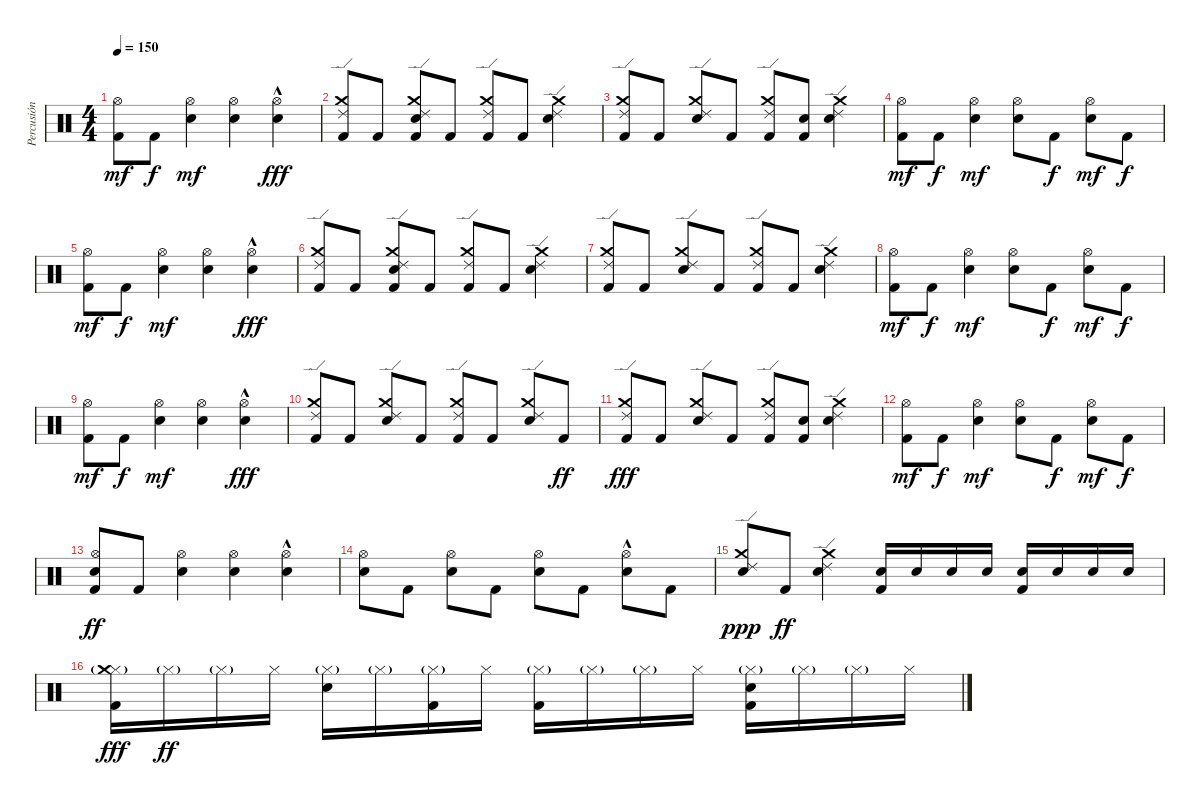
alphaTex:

\track ("Percusión" "Percusión") {instrument percussion}
\staff {score}
\articulation defaults
\ts (4 4)
\tempo 150
\clef neutral
\ks c
("Kick (hit) 2" "Hi-Hat (open)").8{dy mf} "Kick (hit) 2".8{dy f} ("Hi-Hat (open)" "Electric Snare (hit)").4{dy mf} ("Hi-Hat (open)" "Electric Snare (hit)").4 ("Hi-Hat (open)"{hac} "Electric Snare (hit)"{hac}).4{dy fff} |
("Kick (hit) 2" "Crash medium (hit)" "Ride (edge) 2").8 "Kick (hit) 2".8 ("Kick (hit) 2" "Crash medium (hit)" "Electric Snare (hit)" "Ride (edge) 2").8 "Kick (hit) 2".8 ("Kick (hit) 2" "Crash medium (hit)" "Ride (edge) 2").8 "Kick (hit) 2".8 ("Ride (edge) 2" "Crash medium (hit)" "Electric Snare (hit)").4 |
("Kick (hit) 2" "Crash medium (hit)" "Ride (edge) 2").8 "Kick (hit) 2".8 ("Crash medium (hit)" "Electric Snare (hit)" "Ride (edge) 2").8 "Kick (hit) 2".8 ("Kick (hit) 2" "Crash medium (hit)" "Ride (edge) 2").8 ("Kick (hit) 2" "Electric Snare (hit)").8 ("Crash medium (hit)" "Electric Snare (hit)" "Ride (edge) 2").4 |
("Hi-Hat (open)" "Kick (hit) 2").8{dy mf} "Kick (hit) 2".8{dy f} ("Electric Snare (hit)" "Hi-Hat (open)").4{dy mf} ("Hi-Hat (open)" "Electric Snare (hit)").8 "Kick (hit) 2".8{dy f} ("Hi-Hat (open)" "Electric Snare (hit)").8{dy mf} "Kick (hit) 2".8{dy f} |
("Kick (hit) 2" "Hi-Hat (open)").8{dy mf} "Kick (hit) 2".8{dy f} ("Hi-Hat (open)" "Electric Snare (hit)").4{dy mf} ("Hi-Hat (open)" "Electric Snare (hit)").4 ("Hi-Hat (open)"{hac} "Electric Snare (hit)"{hac}).4{dy fff} |
("Kick (hit) 2" "Crash medium (hit)" "Ride (edge) 2").8 "Kick (hit) 2".8 ("Kick (hit) 2" "Crash medium (hit)" "Electric Snare (hit)" "Ride (edge) 2").8 "Kick (hit) 2".8 ("Kick (hit) 2" "Crash medium (hit)" "Ride (edge) 2").8 "Kick (hit) 2".8 ("Ride (edge) 2" "Crash medium (hit)" "Electric Snare (hit)").4 |
("Kick (hit) 2" "Crash medium (hit)" "Ride (edge) 2").8 "Kick (hit) 2".8 ("Crash medium (hit)" "Electric Snare (hit)" "Ride (edge) 2").8 "Kick (hit) 2".8 ("Kick (hit) 2" "Crash medium (hit)" "Ride (edge) 2").8 "Kick (hit) 2".8 ("Crash medium (hit)" "Electric Snare (hit)" "Ride (edge) 2").4 |
("Hi-Hat (open)" "Kick (hit) 2").8{dy mf} "Kick (hit) 2".8{dy f} ("Electric Snare (hit)" "Hi-Hat (open)").4{dy mf} ("Hi-Hat (open)" "Electric Snare (hit)").8 "Kick (hit) 2".8{dy f} ("Hi-Hat (open)" "Electric Snare (hit)").8{dy mf} "Kick (hit) 2".8{dy f} |
("Kick (hit) 2" "Hi-Hat (open)").8{dy mf} "Kick (hit) 2".8{dy f} ("Hi-Hat (open)" "Electric Snare (hit)").4{dy mf} ("Hi-Hat (open)" "Electric Snare (hit)").4 ("Hi-Hat (open)"{hac} "Electric Snare (hit)"{hac}).4{dy fff} |
("Kick (hit) 2" "Crash medium (hit)" "Ride (edge) 2").8 "Kick (hit) 2".8 ("Crash medium (hit)" "Electric Snare (hit)" "Ride (edge) 2").8 "Kick (hit) 2".8 ("Kick (hit) 2" "Crash medium (hit)" "Ride (edge) 2").8 "Kick (hit) 2".8 ("Ride (edge) 2" "Crash medium (hit)" "Electric Snare (hit)").8 "Kick (hit) 2".8{dy ff} |
("Kick (hit) 2" "Crash medium (hit)" "Ride (edge) 2").8{dy fff} "Kick (hit) 2".8 ("Crash medium (hit)" "Electric Snare (hit)" "Ride (edge) 2").8 "Kick (hit) 2".8 ("Kick (hit) 2" "Crash medium (hit)" "Ride (edge) 2").8 ("Kick (hit) 2" "Electric Snare (hit)").8 ("Crash medium (hit)" "Electric Snare (hit)" "Ride (edge) 2").4 |
("Hi-Hat (open)" "Kick (hit) 2").8{dy mf} "Kick (hit) 2".8{dy f} ("Electric Snare (hit)" "Hi-Hat (open)").4{dy mf} ("Hi-Hat (open)" "Electric Snare (hit)").8 "Kick (hit) 2".8{dy f} ("Hi-Hat (open)" "Electric Snare (hit)").8{dy mf} "Kick (hit) 2".8{dy f} |
("Kick (hit) 2" "Hi-Hat (open)" "Electric Snare (hit)").8{dy ff} "Kick (hit) 2".8 ("Hi-Hat (open)" "Electric Snare (hit)").4 ("Hi-Hat (open)" "Electric Snare (hit)").4 ("Hi-Hat (open)"{hac} "Electric Snare (hit)"{hac}).4 |
("Hi-Hat (open)" "Electric Snare (hit)").8 "Kick (hit) 2".8 ("Hi-Hat (open)" "Electric Snare (hit)").8 "Kick (hit) 2".8 ("Hi-Hat (open)" "Electric Snare (hit)").8 "Kick (hit) 2".8 ("Hi-Hat (open)"{hac} "Electric Snare (hit)"{hac}).8 "Kick (hit) 2".8 |
("Crash medium (hit)" "Ride (edge) 2" "Electric Snare (hit)").8{dy ppp} "Kick (hit) 2".8{dy ff} ("Crash medium (hit)" "Electric Snare (hit)" "Ride (edge) 2").4 ("Electric Snare (hit)" "Kick (hit) 2").16 "Electric Snare (hit)".16 "Electric Snare (hit)".16 "Electric Snare (hit)".16 ("Kick (hit) 2" "Electric Snare (hit)").16 "Electric Snare (hit)".16 "Electric Snare (hit)".16 "Electric Snare (hit)".16 |
("Hi-Hat (closed)"{g} "Kick (hit) 2" "Crash medium (hit)").16{dy fff} "Hi-Hat (closed)"{g}.16{dy ff} "Hi-Hat (closed)"{g}.16 "Hi-Hat (closed)".16 ("Hi-Hat (closed)"{g} "Electric Snare (hit)").16 "Hi-Hat (closed)"{g}.16 ("Hi-Hat (closed)"{g} "Kick (hit) 2").16 "Hi-Hat (closed)".16 ("Hi-Hat (closed)"{g} "Kick (hit) 2").16 "Hi-Hat (closed)"{g}.16 "Hi-Hat (closed)"{g}.16 "Hi-Hat (closed)".16 ("Hi-Hat (closed)"{g} "Kick (hit) 2" "Electric Snare (hit)").16 "Hi-Hat (closed)"{g}.16 "Hi-Hat (closed)"{g}.16 "Hi-Hat (closed)".16
